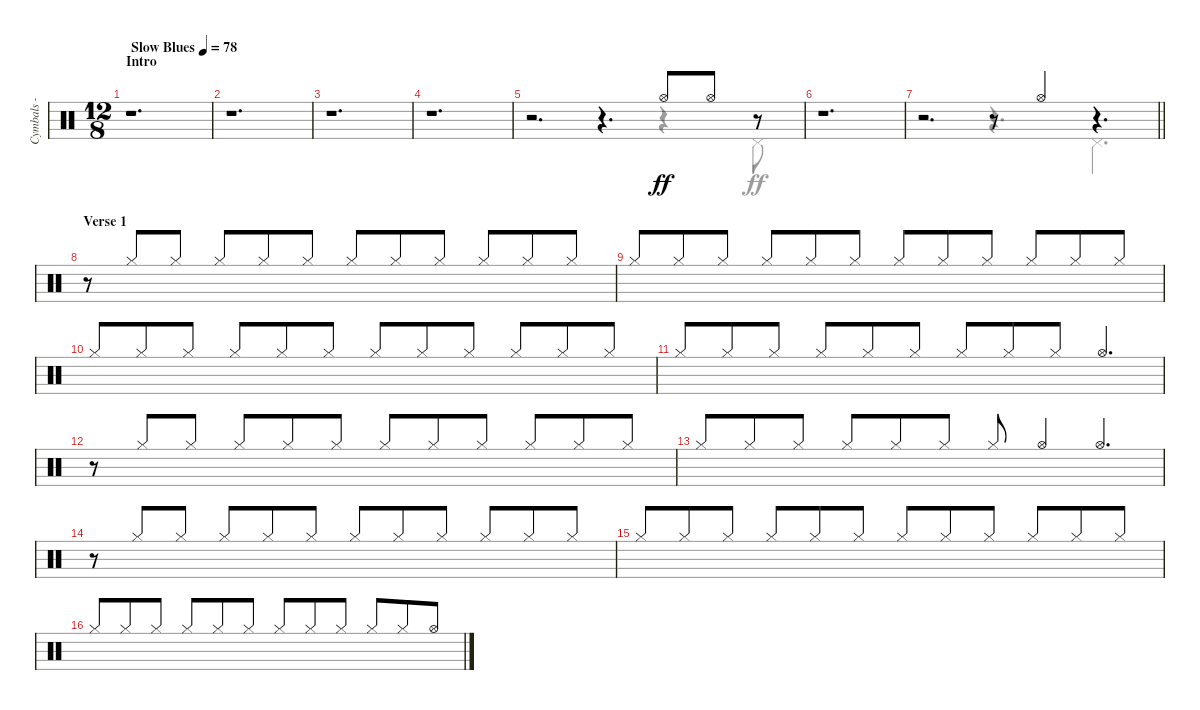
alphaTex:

\track ("Cymbals - hi-hat" "Cymbals - ") {instrument percussion}
\staff {score}
\articulation defaults
\voice
\ts (12 8)
\section ("" "Intro")
\tempo (78 "Slow Blues")
\clef neutral
\ks c
r.1{d dy ff volume 6 balance 11} |
r.1{d} |
r.1{d} |
r.1{d} |
r.2{d} r.4{d} "Hi-Hat (open)".8 "Hi-Hat (open)".8 r.8 |
r.1{d} |
\barLineRight lightlight
r.2{d} r.8 "Hi-Hat (open)".4 r.4{d} |
\section ("" "Verse 1")
r.8{volume 5} "Hi-Hat (closed)".8{beam Up} "Hi-Hat (closed)".8{beam Up} "Hi-Hat (closed)".8{beam Up} "Hi-Hat (closed)".8{beam Up} "Hi-Hat (closed)".8{beam Up} "Hi-Hat (closed)".8{beam Up} "Hi-Hat (closed)".8{beam Up} "Hi-Hat (closed)".8{beam Up} "Hi-Hat (closed)".8{beam Up} "Hi-Hat (closed)".8{beam Up} "Hi-Hat (closed)".8{beam Up} |
"Hi-Hat (closed)".8{beam Up} "Hi-Hat (closed)".8{beam Up} "Hi-Hat (closed)".8{beam Up} "Hi-Hat (closed)".8{beam Up} "Hi-Hat (closed)".8{beam Up} "Hi-Hat (closed)".8{beam Up} "Hi-Hat (closed)".8{beam Up} "Hi-Hat (closed)".8{beam Up} "Hi-Hat (closed)".8{beam Up} "Hi-Hat (closed)".8{beam Up} "Hi-Hat (closed)".8{beam Up} "Hi-Hat (closed)".8{beam Up} |
"Hi-Hat (closed)".8{beam Up} "Hi-Hat (closed)".8{beam Up} "Hi-Hat (closed)".8{beam Up} "Hi-Hat (closed)".8{beam Up} "Hi-Hat (closed)".8{beam Up} "Hi-Hat (closed)".8{beam Up} "Hi-Hat (closed)".8{beam Up} "Hi-Hat (closed)".8{beam Up} "Hi-Hat (closed)".8{beam Up} "Hi-Hat (closed)".8{beam Up} "Hi-Hat (closed)".8{beam Up} "Hi-Hat (closed)".8{beam Up} |
"Hi-Hat (closed)".8{beam Up} "Hi-Hat (closed)".8{beam Up} "Hi-Hat (closed)".8{beam Up} "Hi-Hat (closed)".8{beam Up} "Hi-Hat (closed)".8{beam Up} "Hi-Hat (closed)".8{beam Up} "Hi-Hat (closed)".8{beam Up} "Hi-Hat (closed)".8{beam Up} "Hi-Hat (closed)".8{beam Up} "Hi-Hat (open)".4{d beam Up} |
r.8 "Hi-Hat (closed)".8{beam Up} "Hi-Hat (closed)".8{beam Up} "Hi-Hat (closed)".8{beam Up} "Hi-Hat (closed)".8{beam Up} "Hi-Hat (closed)".8{beam Up} "Hi-Hat (closed)".8{beam Up} "Hi-Hat (closed)".8{beam Up} "Hi-Hat (closed)".8{beam Up} "Hi-Hat (closed)".8{beam Up} "Hi-Hat (closed)".8{beam Up} "Hi-Hat (closed)".8{beam Up} |
"Hi-Hat (closed)".8{beam Up} "Hi-Hat (closed)".8{beam Up} "Hi-Hat (closed)".8{beam Up} "Hi-Hat (closed)".8{beam Up} "Hi-Hat (closed)".8{beam Up} "Hi-Hat (closed)".8{beam Up} "Hi-Hat (closed)".8{beam Up} "Hi-Hat (open)".4{beam Up} "Hi-Hat (open)".4{d beam Up} |
r.8 "Hi-Hat (closed)".8{beam Up} "Hi-Hat (closed)".8{beam Up} "Hi-Hat (closed)".8{beam Up} "Hi-Hat (closed)".8{beam Up} "Hi-Hat (closed)".8{beam Up} "Hi-Hat (closed)".8{beam Up} "Hi-Hat (closed)".8{beam Up} "Hi-Hat (closed)".8{beam Up} "Hi-Hat (closed)".8{beam Up} "Hi-Hat (closed)".8{beam Up} "Hi-Hat (closed)".8{beam Up} |
"Hi-Hat (closed)".8{beam Up} "Hi-Hat (closed)".8{beam Up} "Hi-Hat (closed)".8{beam Up} "Hi-Hat (closed)".8{beam Up} "Hi-Hat (closed)".8{beam Up} "Hi-Hat (closed)".8{beam Up} "Hi-Hat (closed)".8{beam Up} "Hi-Hat (closed)".8{beam Up} "Hi-Hat (closed)".8{beam Up} "Hi-Hat (closed)".8{beam Up} "Hi-Hat (closed)".8{beam Up} "Hi-Hat (closed)".8{beam Up} |
"Hi-Hat (closed)".8{beam Up} "Hi-Hat (closed)".8{beam Up} "Hi-Hat (closed)".8{beam Up} "Hi-Hat (closed)".8{beam Up} "Hi-Hat (closed)".8{beam Up} "Hi-Hat (closed)".8{beam Up} "Hi-Hat (closed)".8{beam Up} "Hi-Hat (closed)".8{beam Up} "Hi-Hat (closed)".8{beam Up} "Hi-Hat (closed)".8{beam Up} "Hi-Hat (closed)".8{beam Up} "Hi-Hat (open)".8{beam Up}
\voice
\clef neutral
\ottava regular
\simile none
\ks c
|
|
|
|
r.2{d} r.4{d} r.4 "Pedal Hi-Hat (hit)".8 |
|
\barLineRight lightlight
r.2{d} r.4{d} "Pedal Hi-Hat (hit)".4{d} |
|
|
|
|
|
|
|
|
